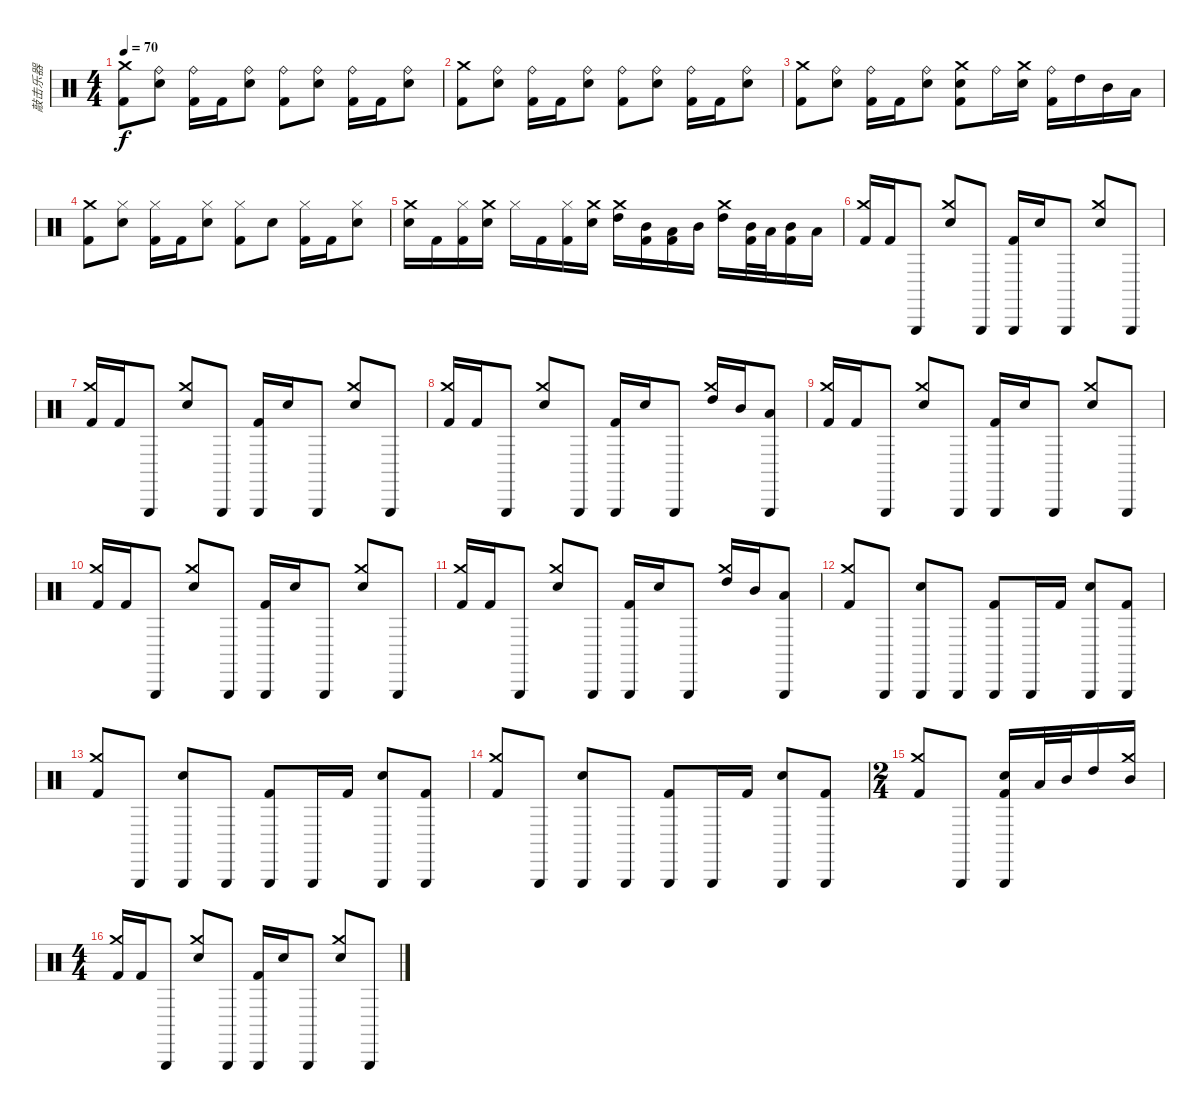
\track ("敲击乐器" "敲击乐器") {instrument percussion}
\staff {score}
\articulation defaults
\ts (4 4)
\tempo 70
\clef neutral
\ks c
("Crash medium (hit)" "Kick (hit) 2").8{dy f} ("Ride (bell)" "Electric Snare (hit)").8 ("Ride (bell)" "Kick (hit) 2").16 "Kick (hit) 2".16 ("Ride (bell)" "Electric Snare (hit)").8 ("Ride (bell)" "Kick (hit) 2").8 ("Ride (bell)" "Electric Snare (hit)").8 ("Ride (bell)" "Kick (hit) 2").16 "Kick (hit) 2".16 ("Ride (bell)" "Electric Snare (hit)").8 |
("Crash medium (hit)" "Kick (hit) 2").8 ("Ride (bell)" "Electric Snare (hit)").8 ("Ride (bell)" "Kick (hit) 2").16 "Kick (hit) 2".16 ("Ride (bell)" "Electric Snare (hit)").8 ("Ride (bell)" "Kick (hit) 2").8 ("Ride (bell)" "Electric Snare (hit)").8 ("Ride (bell)" "Kick (hit) 2").16 "Kick (hit) 2".16 ("Ride (bell)" "Electric Snare (hit)").8 |
("Crash medium (hit)" "Kick (hit) 2").8 ("Ride (bell)" "Electric Snare (hit)").8 ("Ride (bell)" "Kick (hit) 2").16 "Kick (hit) 2".16 ("Ride (bell)" "Electric Snare (hit)").8 ("Crash medium (hit)" "Electric Snare (hit)" "Kick (hit) 2").8 "Ride (bell)".16 ("Crash medium (hit)" "Electric Snare (hit)").16 ("Ride (bell)" "Kick (hit) 2").16 "High Tom (hit)".16 "Mid Tom (hit)".16 "Low Tom (hit)".16 |
("Crash medium (hit)" "Kick (hit) 2").8 ("Hi-Hat (closed)" "Electric Snare (hit)").8 ("Hi-Hat (closed)" "Kick (hit) 2").16 "Kick (hit) 2".16 ("Hi-Hat (closed)" "Electric Snare (hit)").8 ("Hi-Hat (closed)" "Kick (hit) 2").8 "Electric Snare (hit)".8 ("Hi-Hat (closed)" "Kick (hit) 2").16 "Kick (hit) 2".16 ("Hi-Hat (closed)" "Electric Snare (hit)").8 |
("Crash medium (hit)" "Electric Snare (hit)").16 "Kick (hit) 2".16 ("Hi-Hat (closed)" "Kick (hit) 2").16 ("Crash medium (hit)" "Electric Snare (hit)").16 "Hi-Hat (closed)".16 "Kick (hit) 2".16 ("Hi-Hat (closed)" "Kick (hit) 2").16 ("Crash medium (hit)" "Electric Snare (hit)").16 ("Crash medium (hit)" "High Tom (hit)").16 ("Mid Tom (hit)" "Kick (hit) 2").16 ("Low Tom (hit)" "Kick (hit) 2").16 "Mid Tom (hit)".16 ("Crash medium (hit)" "High Tom (hit)").16 ("Mid Tom (hit)" "Kick (hit) 2").32 "Low Tom (hit)".32 ("Mid Tom (hit)" "Kick (hit) 2").16 "Low Tom (hit)".16 |
("Crash medium (hit)" "Kick (hit) 2").16 "Kick (hit) 2".16 "Triangle (hit)".8 ("Crash medium (hit)" "Electric Snare (hit)").8 "Triangle (hit)".8 ("Triangle (hit)" "Kick (hit) 2").16 "Electric Snare (hit)".16 "Triangle (hit)".8 ("Crash medium (hit)" "Electric Snare (hit)").8 "Triangle (hit)".8 |
("Crash medium (hit)" "Kick (hit) 2").16 "Kick (hit) 2".16 "Triangle (hit)".8 ("Crash medium (hit)" "Electric Snare (hit)").8 "Triangle (hit)".8 ("Triangle (hit)" "Kick (hit) 2").16 "Electric Snare (hit)".16 "Triangle (hit)".8 ("Crash medium (hit)" "Electric Snare (hit)").8 "Triangle (hit)".8 |
("Crash medium (hit)" "Kick (hit) 2").16 "Kick (hit) 2".16 "Triangle (hit)".8 ("Crash medium (hit)" "Electric Snare (hit)").8 "Triangle (hit)".8 ("Triangle (hit)" "Kick (hit) 2").16 "Electric Snare (hit)".16 "Triangle (hit)".8 ("Crash medium (hit)" "High Tom (hit)").16 "Mid Tom (hit)".16 ("Triangle (hit)" "Low Tom (hit)").8 |
("Crash medium (hit)" "Kick (hit) 2").16 "Kick (hit) 2".16 "Triangle (hit)".8 ("Crash medium (hit)" "Electric Snare (hit)").8 "Triangle (hit)".8 ("Triangle (hit)" "Kick (hit) 2").16 "Electric Snare (hit)".16 "Triangle (hit)".8 ("Crash medium (hit)" "Electric Snare (hit)").8 "Triangle (hit)".8 |
("Crash medium (hit)" "Kick (hit) 2").16 "Kick (hit) 2".16 "Triangle (hit)".8 ("Crash medium (hit)" "Electric Snare (hit)").8 "Triangle (hit)".8 ("Triangle (hit)" "Kick (hit) 2").16 "Electric Snare (hit)".16 "Triangle (hit)".8 ("Crash medium (hit)" "Electric Snare (hit)").8 "Triangle (hit)".8 |
("Crash medium (hit)" "Kick (hit) 2").16 "Kick (hit) 2".16 "Triangle (hit)".8 ("Crash medium (hit)" "Electric Snare (hit)").8 "Triangle (hit)".8 ("Triangle (hit)" "Kick (hit) 2").16 "Electric Snare (hit)".16 "Triangle (hit)".8 ("Crash medium (hit)" "High Tom (hit)").16 "Mid Tom (hit)".16 ("Triangle (hit)" "Low Tom (hit)").8 |
("Crash medium (hit)" "Kick (hit) 2").8 "Triangle (hit)".8 ("Triangle (hit)" "Electric Snare (hit)").8 "Triangle (hit)".8 ("Triangle (hit)" "Kick (hit) 2").8 "Triangle (hit)".16 "Kick (hit) 2".16 ("Triangle (hit)" "Electric Snare (hit)").8 ("Triangle (hit)" "Kick (hit) 2").8 |
("Crash medium (hit)" "Kick (hit) 2").8 "Triangle (hit)".8 ("Triangle (hit)" "Electric Snare (hit)").8 "Triangle (hit)".8 ("Triangle (hit)" "Kick (hit) 2").8 "Triangle (hit)".16 "Kick (hit) 2".16 ("Triangle (hit)" "Electric Snare (hit)").8 ("Triangle (hit)" "Kick (hit) 2").8 |
("Crash medium (hit)" "Kick (hit) 2").8 "Triangle (hit)".8 ("Triangle (hit)" "Electric Snare (hit)").8 "Triangle (hit)".8 ("Triangle (hit)" "Kick (hit) 2").8 "Triangle (hit)".16 "Kick (hit) 2".16 ("Triangle (hit)" "Electric Snare (hit)").8 ("Triangle (hit)" "Kick (hit) 2").8 |
\ts (2 4)
("Crash medium (hit)" "Kick (hit) 2").8 "Triangle (hit)".8 ("Triangle (hit)" "Electric Snare (hit)" "Kick (hit) 2").16 "Low Tom (hit)".32 "Mid Tom (hit)".32 "High Tom (hit)".16 ("Crash medium (hit)" "Mid Tom (hit)").16 |
\ts (4 4)
("Crash medium (hit)" "Kick (hit) 2").16 "Kick (hit) 2".16 "Triangle (hit)".8 ("Crash medium (hit)" "Electric Snare (hit)").8 "Triangle (hit)".8 ("Triangle (hit)" "Kick (hit) 2").16 "Electric Snare (hit)".16 "Triangle (hit)".8 ("Crash medium (hit)" "Electric Snare (hit)").8 "Triangle (hit)".8
